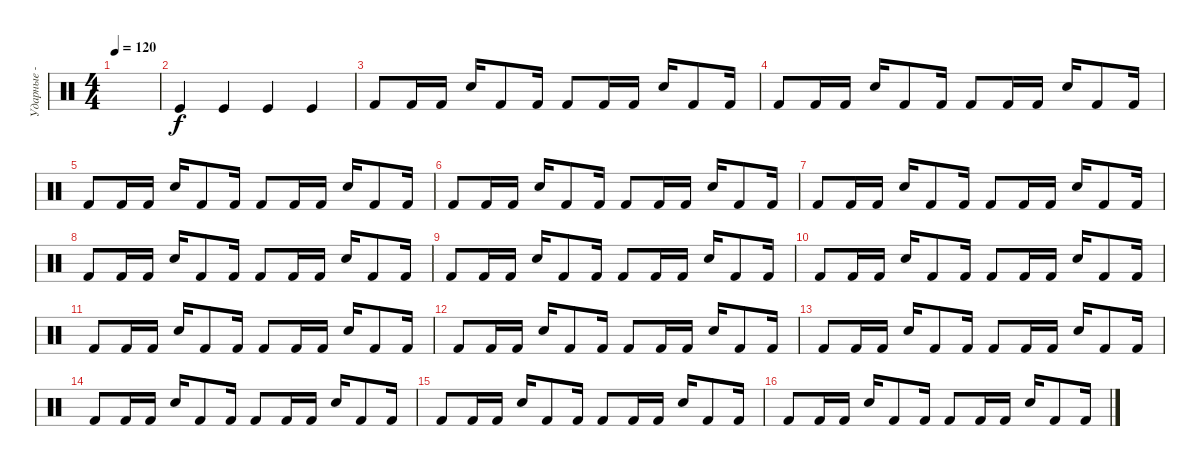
\track ("Ударные - 1" "Ударные - ") {instrument percussion}
\staff {score}
\articulation defaults
\ts (4 4)
\tempo 120
\clef neutral
\ks c
|
"Kick (hit)".4 "Kick (hit)".4 "Kick (hit)".4 "Kick (hit)".4 |
"Kick (hit) 2".8 "Kick (hit) 2".16 "Kick (hit) 2".16 "Electric Snare (hit)".16 "Kick (hit) 2".8 "Kick (hit) 2".16 "Kick (hit) 2".8 "Kick (hit) 2".16 "Kick (hit) 2".16 "Electric Snare (hit)".16 "Kick (hit) 2".8 "Kick (hit) 2".16 |
"Kick (hit) 2".8 "Kick (hit) 2".16 "Kick (hit) 2".16 "Electric Snare (hit)".16 "Kick (hit) 2".8 "Kick (hit) 2".16 "Kick (hit) 2".8 "Kick (hit) 2".16 "Kick (hit) 2".16 "Electric Snare (hit)".16 "Kick (hit) 2".8 "Kick (hit) 2".16 |
"Kick (hit) 2".8 "Kick (hit) 2".16 "Kick (hit) 2".16 "Electric Snare (hit)".16 "Kick (hit) 2".8 "Kick (hit) 2".16 "Kick (hit) 2".8 "Kick (hit) 2".16 "Kick (hit) 2".16 "Electric Snare (hit)".16 "Kick (hit) 2".8 "Kick (hit) 2".16 |
"Kick (hit) 2".8 "Kick (hit) 2".16 "Kick (hit) 2".16 "Electric Snare (hit)".16 "Kick (hit) 2".8 "Kick (hit) 2".16 "Kick (hit) 2".8 "Kick (hit) 2".16 "Kick (hit) 2".16 "Electric Snare (hit)".16 "Kick (hit) 2".8 "Kick (hit) 2".16 |
"Kick (hit) 2".8 "Kick (hit) 2".16 "Kick (hit) 2".16 "Electric Snare (hit)".16 "Kick (hit) 2".8 "Kick (hit) 2".16 "Kick (hit) 2".8 "Kick (hit) 2".16 "Kick (hit) 2".16 "Electric Snare (hit)".16 "Kick (hit) 2".8 "Kick (hit) 2".16 |
"Kick (hit) 2".8 "Kick (hit) 2".16 "Kick (hit) 2".16 "Electric Snare (hit)".16 "Kick (hit) 2".8 "Kick (hit) 2".16 "Kick (hit) 2".8 "Kick (hit) 2".16 "Kick (hit) 2".16 "Electric Snare (hit)".16 "Kick (hit) 2".8 "Kick (hit) 2".16 |
"Kick (hit) 2".8 "Kick (hit) 2".16 "Kick (hit) 2".16 "Electric Snare (hit)".16 "Kick (hit) 2".8 "Kick (hit) 2".16 "Kick (hit) 2".8 "Kick (hit) 2".16 "Kick (hit) 2".16 "Electric Snare (hit)".16 "Kick (hit) 2".8 "Kick (hit) 2".16 |
"Kick (hit) 2".8 "Kick (hit) 2".16 "Kick (hit) 2".16 "Electric Snare (hit)".16 "Kick (hit) 2".8 "Kick (hit) 2".16 "Kick (hit) 2".8 "Kick (hit) 2".16 "Kick (hit) 2".16 "Electric Snare (hit)".16 "Kick (hit) 2".8 "Kick (hit) 2".16 |
"Kick (hit) 2".8 "Kick (hit) 2".16 "Kick (hit) 2".16 "Electric Snare (hit)".16 "Kick (hit) 2".8 "Kick (hit) 2".16 "Kick (hit) 2".8 "Kick (hit) 2".16 "Kick (hit) 2".16 "Electric Snare (hit)".16 "Kick (hit) 2".8 "Kick (hit) 2".16 |
"Kick (hit) 2".8 "Kick (hit) 2".16 "Kick (hit) 2".16 "Electric Snare (hit)".16 "Kick (hit) 2".8 "Kick (hit) 2".16 "Kick (hit) 2".8 "Kick (hit) 2".16 "Kick (hit) 2".16 "Electric Snare (hit)".16 "Kick (hit) 2".8 "Kick (hit) 2".16 |
"Kick (hit) 2".8 "Kick (hit) 2".16 "Kick (hit) 2".16 "Electric Snare (hit)".16 "Kick (hit) 2".8 "Kick (hit) 2".16 "Kick (hit) 2".8 "Kick (hit) 2".16 "Kick (hit) 2".16 "Electric Snare (hit)".16 "Kick (hit) 2".8 "Kick (hit) 2".16 |
"Kick (hit) 2".8 "Kick (hit) 2".16 "Kick (hit) 2".16 "Electric Snare (hit)".16 "Kick (hit) 2".8 "Kick (hit) 2".16 "Kick (hit) 2".8 "Kick (hit) 2".16 "Kick (hit) 2".16 "Electric Snare (hit)".16 "Kick (hit) 2".8 "Kick (hit) 2".16 |
"Kick (hit) 2".8 "Kick (hit) 2".16 "Kick (hit) 2".16 "Electric Snare (hit)".16 "Kick (hit) 2".8 "Kick (hit) 2".16 "Kick (hit) 2".8 "Kick (hit) 2".16 "Kick (hit) 2".16 "Electric Snare (hit)".16 "Kick (hit) 2".8 "Kick (hit) 2".16 |
"Kick (hit) 2".8 "Kick (hit) 2".16 "Kick (hit) 2".16 "Electric Snare (hit)".16 "Kick (hit) 2".8 "Kick (hit) 2".16 "Kick (hit) 2".8 "Kick (hit) 2".16 "Kick (hit) 2".16 "Electric Snare (hit)".16 "Kick (hit) 2".8 "Kick (hit) 2".16
